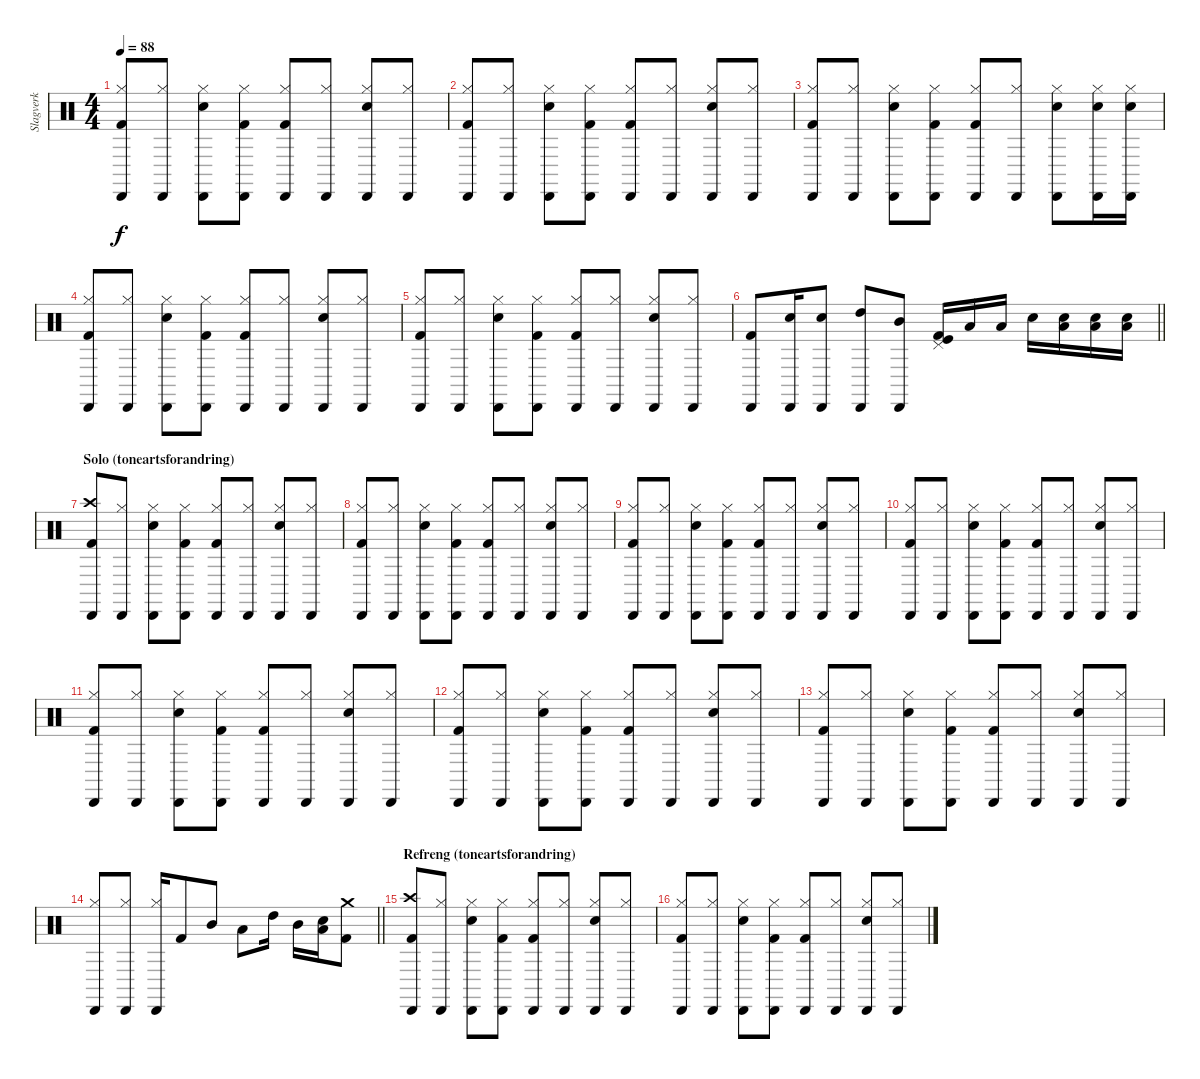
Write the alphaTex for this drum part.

\track ("Slagverk" "Slagverk") {instrument percussion}
\staff {score}
\articulation defaults
\ts (4 4)
\tempo 88
\clef neutral
\ks c
("Hi-Hat (closed)" "Cabasa (hit)" "Kick (hit) 2").8{dy f} ("Hi-Hat (closed)" "Cabasa (hit)").8 ("Hi-Hat (closed)" "Snare (hit) 2" "Cabasa (hit)").8 ("Hi-Hat (closed)" "Cabasa (hit)" "Kick (hit) 2").8 ("Hi-Hat (closed)" "Cabasa (hit)" "Kick (hit) 2").8 ("Hi-Hat (closed)" "Cabasa (hit)").8 ("Hi-Hat (closed)" "Snare (hit) 2" "Cabasa (hit)").8 ("Hi-Hat (closed)" "Cabasa (hit)").8 |
("Hi-Hat (closed)" "Cabasa (hit)" "Kick (hit) 2").8 ("Hi-Hat (closed)" "Cabasa (hit)").8 ("Hi-Hat (closed)" "Snare (hit) 2" "Cabasa (hit)").8 ("Hi-Hat (closed)" "Cabasa (hit)" "Kick (hit) 2").8 ("Hi-Hat (closed)" "Cabasa (hit)" "Kick (hit) 2").8 ("Hi-Hat (closed)" "Cabasa (hit)").8 ("Hi-Hat (closed)" "Snare (hit) 2" "Cabasa (hit)").8 ("Hi-Hat (closed)" "Cabasa (hit)").8 |
("Hi-Hat (closed)" "Cabasa (hit)" "Kick (hit) 2").8 ("Hi-Hat (closed)" "Cabasa (hit)").8 ("Hi-Hat (closed)" "Snare (hit) 2" "Cabasa (hit)").8 ("Hi-Hat (closed)" "Cabasa (hit)" "Kick (hit) 2").8 ("Hi-Hat (closed)" "Cabasa (hit)" "Kick (hit) 2").8 ("Hi-Hat (closed)" "Cabasa (hit)").8 ("Hi-Hat (closed)" "Snare (hit) 2" "Cabasa (hit)").8 ("Hi-Hat (closed)" "Snare (hit) 2" "Cabasa (hit)").16 ("Hi-Hat (closed)" "Snare (hit) 2" "Cabasa (hit)").16 |
("Hi-Hat (closed)" "Cabasa (hit)" "Kick (hit) 2").8 ("Hi-Hat (closed)" "Cabasa (hit)").8 ("Hi-Hat (closed)" "Snare (hit) 2" "Cabasa (hit)").8 ("Hi-Hat (closed)" "Cabasa (hit)" "Kick (hit) 2").8 ("Hi-Hat (closed)" "Cabasa (hit)" "Kick (hit) 2").8 ("Hi-Hat (closed)" "Cabasa (hit)").8 ("Hi-Hat (closed)" "Snare (hit) 2" "Cabasa (hit)").8 ("Hi-Hat (closed)" "Cabasa (hit)").8 |
("Hi-Hat (closed)" "Cabasa (hit)" "Kick (hit) 2").8 ("Hi-Hat (closed)" "Cabasa (hit)").8 ("Hi-Hat (closed)" "Snare (hit) 2" "Cabasa (hit)").8 ("Hi-Hat (closed)" "Cabasa (hit)" "Kick (hit) 2").8 ("Hi-Hat (closed)" "Cabasa (hit)" "Kick (hit) 2").8 ("Hi-Hat (closed)" "Cabasa (hit)").8 ("Hi-Hat (closed)" "Snare (hit) 2" "Cabasa (hit)").8 ("Hi-Hat (closed)" "Cabasa (hit)").8 |
\barLineRight lightlight
("Cabasa (hit)" "Kick (hit) 2").8 ("Snare (hit) 2" "Cabasa (hit)").16 ("Snare (hit) 2" "Cabasa (hit)").8 ("High Tom (hit)" "Cabasa (hit)").8 ("Mid Tom (hit)" "Cabasa (hit)").8 ("Pedal Hi-Hat (hit)" "Kick (hit)" "Kick (hit) 2").16 "Low Tom (hit)".16 "Low Floor Tom (hit)".16 "Snare (hit) 2".16 ("Low Tom (hit)" "Snare (hit) 2").16 ("Low Floor Tom (hit)" "Snare (hit) 2").16 ("Low Floor Tom (hit)" "Snare (hit) 2").16 |
\section ("" "Solo (toneartsforandring)")
("Crash high (hit)" "Cabasa (hit)" "Kick (hit) 2").8 ("Hi-Hat (closed)" "Cabasa (hit)").8 ("Hi-Hat (closed)" "Snare (hit) 2" "Cabasa (hit)").8 ("Hi-Hat (closed)" "Cabasa (hit)" "Kick (hit) 2").8 ("Hi-Hat (closed)" "Cabasa (hit)" "Kick (hit) 2").8 ("Hi-Hat (closed)" "Cabasa (hit)").8 ("Hi-Hat (closed)" "Snare (hit) 2" "Cabasa (hit)").8 ("Hi-Hat (closed)" "Cabasa (hit)").8 |
("Hi-Hat (closed)" "Cabasa (hit)" "Kick (hit) 2").8 ("Hi-Hat (closed)" "Cabasa (hit)").8 ("Hi-Hat (closed)" "Snare (hit) 2" "Cabasa (hit)").8 ("Hi-Hat (closed)" "Cabasa (hit)" "Kick (hit) 2").8 ("Hi-Hat (closed)" "Cabasa (hit)" "Kick (hit) 2").8 ("Hi-Hat (closed)" "Cabasa (hit)").8 ("Hi-Hat (closed)" "Snare (hit) 2" "Cabasa (hit)").8 ("Hi-Hat (closed)" "Cabasa (hit)").8 |
("Hi-Hat (closed)" "Cabasa (hit)" "Kick (hit) 2").8 ("Hi-Hat (closed)" "Cabasa (hit)").8 ("Hi-Hat (closed)" "Snare (hit) 2" "Cabasa (hit)").8 ("Hi-Hat (closed)" "Cabasa (hit)" "Kick (hit) 2").8 ("Hi-Hat (closed)" "Cabasa (hit)" "Kick (hit) 2").8 ("Hi-Hat (closed)" "Cabasa (hit)").8 ("Hi-Hat (closed)" "Snare (hit) 2" "Cabasa (hit)").8 ("Hi-Hat (closed)" "Cabasa (hit)").8 |
("Hi-Hat (closed)" "Cabasa (hit)" "Kick (hit) 2").8 ("Hi-Hat (closed)" "Cabasa (hit)").8 ("Hi-Hat (closed)" "Snare (hit) 2" "Cabasa (hit)").8 ("Hi-Hat (closed)" "Cabasa (hit)" "Kick (hit) 2").8 ("Hi-Hat (closed)" "Cabasa (hit)" "Kick (hit) 2").8 ("Hi-Hat (closed)" "Cabasa (hit)").8 ("Hi-Hat (closed)" "Snare (hit) 2" "Cabasa (hit)").8 ("Hi-Hat (closed)" "Cabasa (hit)").8 |
("Hi-Hat (closed)" "Cabasa (hit)" "Kick (hit) 2").8 ("Hi-Hat (closed)" "Cabasa (hit)").8 ("Hi-Hat (closed)" "Snare (hit) 2" "Cabasa (hit)").8 ("Hi-Hat (closed)" "Cabasa (hit)" "Kick (hit) 2").8 ("Hi-Hat (closed)" "Cabasa (hit)" "Kick (hit) 2").8 ("Hi-Hat (closed)" "Cabasa (hit)").8 ("Hi-Hat (closed)" "Snare (hit) 2" "Cabasa (hit)").8 ("Hi-Hat (closed)" "Cabasa (hit)").8 |
("Hi-Hat (closed)" "Cabasa (hit)" "Kick (hit) 2").8 ("Hi-Hat (closed)" "Cabasa (hit)").8 ("Hi-Hat (closed)" "Snare (hit) 2" "Cabasa (hit)").8 ("Hi-Hat (closed)" "Cabasa (hit)" "Kick (hit) 2").8 ("Hi-Hat (closed)" "Cabasa (hit)" "Kick (hit) 2").8 ("Hi-Hat (closed)" "Cabasa (hit)").8 ("Hi-Hat (closed)" "Snare (hit) 2" "Cabasa (hit)").8 ("Hi-Hat (closed)" "Cabasa (hit)").8 |
("Hi-Hat (closed)" "Cabasa (hit)" "Kick (hit) 2").8 ("Hi-Hat (closed)" "Cabasa (hit)").8 ("Hi-Hat (closed)" "Snare (hit) 2" "Cabasa (hit)").8 ("Hi-Hat (closed)" "Cabasa (hit)" "Kick (hit) 2").8 ("Hi-Hat (closed)" "Cabasa (hit)" "Kick (hit) 2").8 ("Hi-Hat (closed)" "Cabasa (hit)").8 ("Hi-Hat (closed)" "Snare (hit) 2" "Cabasa (hit)").8 ("Hi-Hat (closed)" "Cabasa (hit)").8 |
\barLineRight lightlight
("Hi-Hat (closed)" "Cabasa (hit)").8 ("Hi-Hat (closed)" "Cabasa (hit)").8 ("Hi-Hat (closed)" "Cabasa (hit)").16 "Kick (hit) 2".8 "Mid Tom (hit)".8 "Low Tom (hit)".8 "High Tom (hit)".16 "Mid Tom (hit)".16 ("Snare (hit) 2" "Low Tom (hit)").16 ("Crash medium (hit)" "Kick (hit) 2").8 |
\section ("" "Refreng (toneartsforandring)")
("Crash high (hit)" "Cabasa (hit)" "Kick (hit) 2").8 ("Hi-Hat (closed)" "Cabasa (hit)").8 ("Hi-Hat (closed)" "Snare (hit) 2" "Cabasa (hit)").8 ("Hi-Hat (closed)" "Cabasa (hit)" "Kick (hit) 2").8 ("Hi-Hat (closed)" "Cabasa (hit)" "Kick (hit) 2").8 ("Hi-Hat (closed)" "Cabasa (hit)").8 ("Hi-Hat (closed)" "Snare (hit) 2" "Cabasa (hit)").8 ("Hi-Hat (closed)" "Cabasa (hit)").8 |
("Hi-Hat (closed)" "Cabasa (hit)" "Kick (hit) 2").8 ("Hi-Hat (closed)" "Cabasa (hit)").8 ("Hi-Hat (closed)" "Snare (hit) 2" "Cabasa (hit)").8 ("Hi-Hat (closed)" "Cabasa (hit)" "Kick (hit) 2").8 ("Hi-Hat (closed)" "Cabasa (hit)" "Kick (hit) 2").8 ("Hi-Hat (closed)" "Cabasa (hit)").8 ("Hi-Hat (closed)" "Snare (hit) 2" "Cabasa (hit)").8 ("Hi-Hat (closed)" "Cabasa (hit)").8
